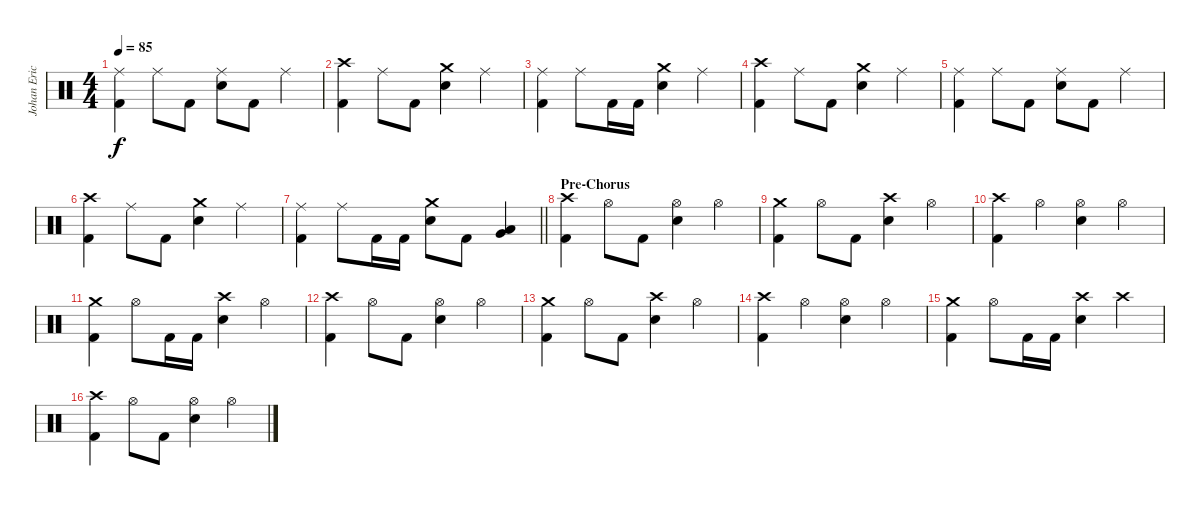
\track ("Johan Ericson" "Johan Eric") {instrument percussion}
\staff {score}
\articulation defaults
\ts (4 4)
\tempo 85
\clef neutral
\ks c
("Ride (middle)" "Kick (hit) 2").4{dy f} "Ride (middle)".8 "Kick (hit) 2".8 ("Ride (middle)" "Snare (hit) 2").8 "Kick (hit) 2".8 "Ride (middle)".4 |
("Crash high (hit)" "Kick (hit) 2").4 "Ride (middle)".8 "Kick (hit) 2".8 ("Crash medium (hit)" "Snare (hit) 2").4 "Ride (middle)".4 |
("Ride (middle)" "Kick (hit) 2").4 "Ride (middle)".8 "Kick (hit) 2".16 "Kick (hit) 2".16 ("Crash medium (hit)" "Snare (hit) 2").4 "Ride (middle)".4 |
("Crash high (hit)" "Kick (hit) 2").4 "Ride (middle)".8 "Kick (hit) 2".8 ("Crash medium (hit)" "Snare (hit) 2").4 "Ride (middle)".4 |
("Ride (middle)" "Kick (hit) 2").4 "Ride (middle)".8 "Kick (hit) 2".8 ("Ride (middle)" "Snare (hit) 2").8 "Kick (hit) 2".8 "Ride (middle)".4 |
("Crash high (hit)" "Kick (hit) 2").4 "Ride (middle)".8 "Kick (hit) 2".8 ("Crash medium (hit)" "Snare (hit) 2").4 "Ride (middle)".4 |
\barLineRight lightlight
("Ride (middle)" "Kick (hit) 2").4 "Ride (middle)".8 "Kick (hit) 2".16 "Kick (hit) 2".16 ("Crash medium (hit)" "Snare (hit) 2").8 "Kick (hit) 2".8 ("Low Floor Tom (hit)" "Very Low Tom (hit)").4 |
\section ("" "Pre-Chorus")
("Crash high (hit)" "Kick (hit) 2").4 "Hi-Hat (open)".8 "Kick (hit) 2".8 ("Hi-Hat (open)" "Snare (hit) 2").4 "Hi-Hat (open)".4 |
("Crash medium (hit)" "Kick (hit) 2").4 "Hi-Hat (open)".8 "Kick (hit) 2".8 ("Crash high (hit)" "Snare (hit) 2").4 "Hi-Hat (open)".4 |
("Crash high (hit)" "Kick (hit) 2").4 "Hi-Hat (open)".4 ("Hi-Hat (open)" "Snare (hit) 2").4 "Hi-Hat (open)".4 |
("Crash medium (hit)" "Kick (hit) 2").4 "Hi-Hat (open)".8 "Kick (hit) 2".16 "Kick (hit) 2".16 ("Crash high (hit)" "Snare (hit) 2").4 "Hi-Hat (open)".4 |
("Crash high (hit)" "Kick (hit) 2").4 "Hi-Hat (open)".8 "Kick (hit) 2".8 ("Hi-Hat (open)" "Snare (hit) 2").4 "Hi-Hat (open)".4 |
("Crash medium (hit)" "Kick (hit) 2").4 "Hi-Hat (open)".8 "Kick (hit) 2".8 ("Crash high (hit)" "Snare (hit) 2").4 "Hi-Hat (open)".4 |
("Crash high (hit)" "Kick (hit) 2").4 "Hi-Hat (open)".4 ("Hi-Hat (open)" "Snare (hit) 2").4 "Hi-Hat (open)".4 |
("Crash medium (hit)" "Kick (hit) 2").4 "Hi-Hat (open)".8 "Kick (hit) 2".16 "Kick (hit) 2".16 ("Crash high (hit)" "Snare (hit) 2").4 "Crash high (hit)".4 |
("Crash high (hit)" "Kick (hit) 2").4 "Hi-Hat (open)".8 "Kick (hit) 2".8 ("Hi-Hat (open)" "Snare (hit) 2").4 "Hi-Hat (open)".4
